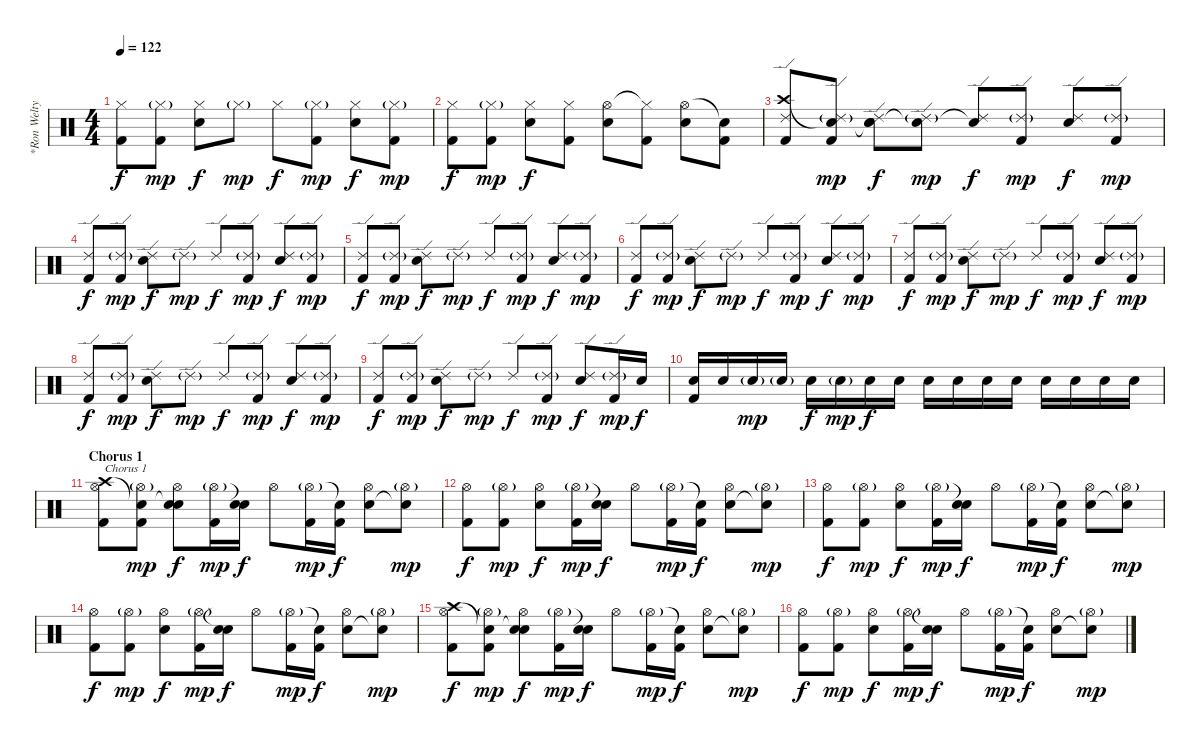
\track ("*Ron Welty (Ex-drummer)" "*Ron Welty") {instrument percussion}
\staff {score}
\articulation defaults
\ts (4 4)
\tempo 122
\clef neutral
\ks c
("Hi-Hat (closed)" "Kick (hit) 2").8{dy f balance 8} ("Hi-Hat (closed)"{g} "Kick (hit) 2").8{dy mp} ("Hi-Hat (closed)" "Electric Snare (hit)").8{dy f} "Hi-Hat (closed)"{g}.8{dy mp} "Hi-Hat (closed)".8{dy f} ("Hi-Hat (closed)"{g} "Kick (hit) 2").8{dy mp} ("Hi-Hat (closed)" "Electric Snare (hit)").8{dy f} ("Hi-Hat (closed)"{g} "Kick (hit) 2").8{dy mp} |
("Hi-Hat (closed)" "Kick (hit) 2").8{dy f balance 8} ("Hi-Hat (closed)"{g} "Kick (hit) 2").8{dy mp} ("Hi-Hat (closed)" "Electric Snare (hit)").8{dy f} ("Hi-Hat (closed)" "Kick (hit) 2").8 ("Hi-Hat (open)" "Electric Snare (hit)").8 ("Hi-Hat (closed)"{t} "Kick (hit) 2").8 ("Hi-Hat (open)" "Electric Snare (hit)").8 ("Snare (hit)"{t} "Kick (hit) 2").8 |
("Crash high (hit)" "Ride (edge) 2" "Kick (hit) 2").8{balance 8} ("Snare (hit)"{t} "Ride (edge) 2"{g} "Kick (hit) 2").8{dy mp} ("Snare (hit)"{t} "Ride (edge) 2" "Electric Snare (hit)").8{dy f} ("Snare (hit)"{t} "Ride (edge) 2"{g}).8{dy mp} ("Snare (hit)"{t} "Ride (edge) 2").8{dy f} ("Ride (edge) 2"{g} "Kick (hit) 2").8{dy mp} ("Ride (edge) 2" "Electric Snare (hit)").8{dy f} ("Ride (edge) 2"{g} "Kick (hit) 2").8{dy mp} |
("Ride (edge) 2" "Kick (hit) 2").8{dy f balance 8} ("Ride (edge) 2"{g} "Kick (hit) 2").8{dy mp} ("Ride (edge) 2" "Electric Snare (hit)").8{dy f} "Ride (edge) 2"{g}.8{dy mp} "Ride (edge) 2".8{dy f} ("Ride (edge) 2"{g} "Kick (hit) 2").8{dy mp} ("Ride (edge) 2" "Electric Snare (hit)").8{dy f} ("Ride (edge) 2"{g} "Kick (hit) 2").8{dy mp} |
("Ride (edge) 2" "Kick (hit) 2").8{dy f balance 8} ("Ride (edge) 2"{g} "Kick (hit) 2").8{dy mp} ("Ride (edge) 2" "Electric Snare (hit)").8{dy f} "Ride (edge) 2"{g}.8{dy mp} "Ride (edge) 2".8{dy f} ("Ride (edge) 2"{g} "Kick (hit) 2").8{dy mp} ("Ride (edge) 2" "Electric Snare (hit)").8{dy f} ("Ride (edge) 2"{g} "Kick (hit) 2").8{dy mp} |
("Ride (edge) 2" "Kick (hit) 2").8{dy f balance 8} ("Ride (edge) 2"{g} "Kick (hit) 2").8{dy mp} ("Ride (edge) 2" "Electric Snare (hit)").8{dy f} "Ride (edge) 2"{g}.8{dy mp} "Ride (edge) 2".8{dy f} ("Ride (edge) 2"{g} "Kick (hit) 2").8{dy mp} ("Ride (edge) 2" "Electric Snare (hit)").8{dy f} ("Ride (edge) 2"{g} "Kick (hit) 2").8{dy mp} |
("Ride (edge) 2" "Kick (hit) 2").8{dy f balance 8} ("Ride (edge) 2"{g} "Kick (hit) 2").8{dy mp} ("Ride (edge) 2" "Electric Snare (hit)").8{dy f} "Ride (edge) 2"{g}.8{dy mp} "Ride (edge) 2".8{dy f} ("Ride (edge) 2"{g} "Kick (hit) 2").8{dy mp} ("Ride (edge) 2" "Electric Snare (hit)").8{dy f} ("Ride (edge) 2"{g} "Kick (hit) 2").8{dy mp} |
("Ride (edge) 2" "Kick (hit) 2").8{dy f balance 8} ("Ride (edge) 2"{g} "Kick (hit) 2").8{dy mp} ("Ride (edge) 2" "Electric Snare (hit)").8{dy f} "Ride (edge) 2"{g}.8{dy mp} "Ride (edge) 2".8{dy f} ("Ride (edge) 2"{g} "Kick (hit) 2").8{dy mp} ("Ride (edge) 2" "Electric Snare (hit)").8{dy f} ("Ride (edge) 2"{g} "Kick (hit) 2").8{dy mp} |
("Ride (edge) 2" "Kick (hit) 2").8{dy f balance 8} ("Ride (edge) 2"{g} "Kick (hit) 2").8{dy mp} ("Ride (edge) 2" "Electric Snare (hit)").8{dy f} "Ride (edge) 2"{g}.8{dy mp} "Ride (edge) 2".8{dy f} ("Ride (edge) 2"{g} "Kick (hit) 2").8{dy mp} ("Ride (edge) 2" "Electric Snare (hit)").8{dy f} ("Ride (edge) 2"{g} "Kick (hit) 2").16{dy mp} "Electric Snare (hit)".16{dy f} |
("Electric Snare (hit)" "Kick (hit) 2").16{balance 8} "Electric Snare (hit)".16 "Electric Snare (hit)"{g}.16{dy mp} "Electric Snare (hit)"{g}.16 "Electric Snare (hit)".16{dy f} "Electric Snare (hit)"{g}.16{dy mp} "Electric Snare (hit)".16{dy f} "Electric Snare (hit)".16 "Electric Snare (hit)".16 "Electric Snare (hit)".16 "Electric Snare (hit)".16 "Electric Snare (hit)".16 "Electric Snare (hit)".16 "Electric Snare (hit)".16 "Electric Snare (hit)".16 "Electric Snare (hit)".16 |
\section ("" "Chorus 1")
("Crash high (hit)" "Hi-Hat (open)" "Kick (hit) 2").8{txt "Chorus 1" volume 12 balance 8} ("Snare (hit)"{t} "Hi-Hat (open)"{g} "Kick (hit) 2").8{dy mp} ("Snare (hit)"{t} "Hi-Hat (open)" "Electric Snare (hit)").8{dy f} ("Hi-Hat (open)"{g} "Kick (hit) 2").16{dy mp} ("Snare (hit)"{t} "Electric Snare (hit)").16{dy f} "Hi-Hat (open)".8 ("Hi-Hat (open)"{g} "Kick (hit) 2").16{dy mp} ("Snare (hit)"{t} "Kick (hit) 2").16{dy f} ("Hi-Hat (open)" "Electric Snare (hit)").8 ("Hi-Hat (open)"{g} "Snare (hit)"{t}).8{dy mp} |
("Hi-Hat (open)" "Kick (hit) 2").8{dy f volume 12} ("Hi-Hat (open)"{g} "Kick (hit) 2").8{dy mp} ("Hi-Hat (open)" "Electric Snare (hit)").8{dy f} ("Hi-Hat (open)"{g} "Kick (hit) 2").16{dy mp} ("Snare (hit)"{t} "Electric Snare (hit)").16{dy f} "Hi-Hat (open)".8 ("Hi-Hat (open)"{g} "Kick (hit) 2").16{dy mp} ("Snare (hit)"{t} "Kick (hit) 2").16{dy f} ("Hi-Hat (open)" "Electric Snare (hit)").8 ("Hi-Hat (open)"{g} "Snare (hit)"{t}).8{dy mp} |
("Hi-Hat (open)" "Kick (hit) 2").8{dy f volume 12} ("Hi-Hat (open)"{g} "Kick (hit) 2").8{dy mp} ("Hi-Hat (open)" "Electric Snare (hit)").8{dy f} ("Hi-Hat (open)"{g} "Kick (hit) 2").16{dy mp} ("Snare (hit)"{t} "Electric Snare (hit)").16{dy f} "Hi-Hat (open)".8 ("Hi-Hat (open)"{g} "Kick (hit) 2").16{dy mp} ("Snare (hit)"{t} "Kick (hit) 2").16{dy f} ("Hi-Hat (open)" "Electric Snare (hit)").8 ("Hi-Hat (open)"{g} "Snare (hit)"{t}).8{dy mp} |
("Hi-Hat (open)" "Kick (hit) 2").8{dy f volume 12} ("Hi-Hat (open)"{g} "Kick (hit) 2").8{dy mp} ("Hi-Hat (open)" "Electric Snare (hit)").8{dy f} ("Hi-Hat (open)"{g} "Kick (hit) 2").16{dy mp} ("Snare (hit)"{t} "Electric Snare (hit)").16{dy f} "Hi-Hat (open)".8 ("Hi-Hat (open)"{g} "Kick (hit) 2").16{dy mp} ("Snare (hit)"{t} "Kick (hit) 2").16{dy f} ("Hi-Hat (open)" "Electric Snare (hit)").8 ("Hi-Hat (open)"{g} "Snare (hit)"{t}).8{dy mp} |
("Crash high (hit)" "Hi-Hat (open)" "Kick (hit) 2").8{dy f volume 12 balance 8} ("Snare (hit)"{t} "Hi-Hat (open)"{g} "Kick (hit) 2").8{dy mp} ("Snare (hit)"{t} "Hi-Hat (open)" "Electric Snare (hit)").8{dy f} ("Hi-Hat (open)"{g} "Kick (hit) 2").16{dy mp} ("Snare (hit)"{t} "Electric Snare (hit)").16{dy f} "Hi-Hat (open)".8 ("Hi-Hat (open)"{g} "Kick (hit) 2").16{dy mp} ("Snare (hit)"{t} "Kick (hit) 2").16{dy f} ("Hi-Hat (open)" "Electric Snare (hit)").8 ("Hi-Hat (open)"{g} "Snare (hit)"{t}).8{dy mp} |
("Hi-Hat (open)" "Kick (hit) 2").8{dy f volume 12} ("Hi-Hat (open)"{g} "Kick (hit) 2").8{dy mp} ("Hi-Hat (open)" "Electric Snare (hit)").8{dy f} ("Hi-Hat (open)"{g} "Kick (hit) 2").16{dy mp} ("Snare (hit)"{t} "Electric Snare (hit)").16{dy f} "Hi-Hat (open)".8 ("Hi-Hat (open)"{g} "Kick (hit) 2").16{dy mp} ("Snare (hit)"{t} "Kick (hit) 2").16{dy f} ("Hi-Hat (open)" "Electric Snare (hit)").8 ("Hi-Hat (open)"{g} "Snare (hit)"{t}).8{dy mp}
